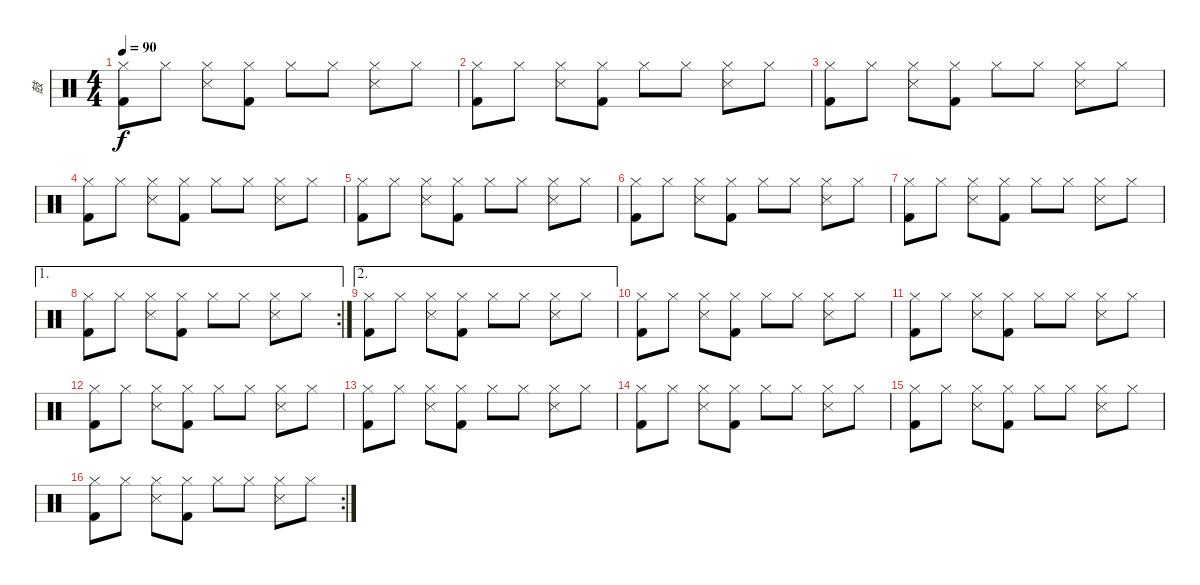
\track ("鼓" "鼓") {instrument percussion}
\staff {score}
\articulation defaults
\ts (4 4)
\tempo 90
\clef neutral
\ks c
("Hi-Hat (closed)" "Kick (hit) 2").8{dy f} "Hi-Hat (closed)".8 ("Hi-Hat (closed)" "Snare (side stick) 3").8 ("Hi-Hat (closed)" "Kick (hit) 2").8 "Hi-Hat (closed)".8 "Hi-Hat (closed)".8 ("Hi-Hat (closed)" "Snare (side stick) 3").8 "Hi-Hat (closed)".8 |
("Hi-Hat (closed)" "Kick (hit) 2").8 "Hi-Hat (closed)".8 ("Hi-Hat (closed)" "Snare (side stick) 3").8 ("Hi-Hat (closed)" "Kick (hit) 2").8 "Hi-Hat (closed)".8 "Hi-Hat (closed)".8 ("Hi-Hat (closed)" "Snare (side stick) 3").8 "Hi-Hat (closed)".8 |
("Hi-Hat (closed)" "Kick (hit) 2").8 "Hi-Hat (closed)".8 ("Hi-Hat (closed)" "Snare (side stick) 3").8 ("Hi-Hat (closed)" "Kick (hit) 2").8 "Hi-Hat (closed)".8 "Hi-Hat (closed)".8 ("Hi-Hat (closed)" "Snare (side stick) 3").8 "Hi-Hat (closed)".8 |
("Hi-Hat (closed)" "Kick (hit) 2").8 "Hi-Hat (closed)".8 ("Hi-Hat (closed)" "Snare (side stick) 3").8 ("Hi-Hat (closed)" "Kick (hit) 2").8 "Hi-Hat (closed)".8 "Hi-Hat (closed)".8 ("Hi-Hat (closed)" "Snare (side stick) 3").8 "Hi-Hat (closed)".8 |
("Hi-Hat (closed)" "Kick (hit) 2").8 "Hi-Hat (closed)".8 ("Hi-Hat (closed)" "Snare (side stick) 3").8 ("Hi-Hat (closed)" "Kick (hit) 2").8 "Hi-Hat (closed)".8 "Hi-Hat (closed)".8 ("Hi-Hat (closed)" "Snare (side stick) 3").8 "Hi-Hat (closed)".8 |
("Hi-Hat (closed)" "Kick (hit) 2").8 "Hi-Hat (closed)".8 ("Hi-Hat (closed)" "Snare (side stick) 3").8 ("Hi-Hat (closed)" "Kick (hit) 2").8 "Hi-Hat (closed)".8 "Hi-Hat (closed)".8 ("Hi-Hat (closed)" "Snare (side stick) 3").8 "Hi-Hat (closed)".8 |
("Hi-Hat (closed)" "Kick (hit) 2").8 "Hi-Hat (closed)".8 ("Hi-Hat (closed)" "Snare (side stick) 3").8 ("Hi-Hat (closed)" "Kick (hit) 2").8 "Hi-Hat (closed)".8 "Hi-Hat (closed)".8 ("Hi-Hat (closed)" "Snare (side stick) 3").8 "Hi-Hat (closed)".8 |
\ae 1
\rc 2
("Hi-Hat (closed)" "Kick (hit) 2").8 "Hi-Hat (closed)".8 ("Hi-Hat (closed)" "Snare (side stick) 3").8 ("Hi-Hat (closed)" "Kick (hit) 2").8 "Hi-Hat (closed)".8 "Hi-Hat (closed)".8 ("Hi-Hat (closed)" "Snare (side stick) 3").8 "Hi-Hat (closed)".8 |
\ae 2
("Hi-Hat (closed)" "Kick (hit) 2").8 "Hi-Hat (closed)".8 ("Hi-Hat (closed)" "Snare (side stick) 3").8 ("Hi-Hat (closed)" "Kick (hit) 2").8 "Hi-Hat (closed)".8 "Hi-Hat (closed)".8 ("Hi-Hat (closed)" "Snare (side stick) 3").8 "Hi-Hat (closed)".8 |
("Hi-Hat (closed)" "Kick (hit) 2").8 "Hi-Hat (closed)".8 ("Hi-Hat (closed)" "Snare (side stick) 3").8 ("Hi-Hat (closed)" "Kick (hit) 2").8 "Hi-Hat (closed)".8 "Hi-Hat (closed)".8 ("Hi-Hat (closed)" "Snare (side stick) 3").8 "Hi-Hat (closed)".8 |
("Hi-Hat (closed)" "Kick (hit) 2").8 "Hi-Hat (closed)".8 ("Hi-Hat (closed)" "Snare (side stick) 3").8 ("Hi-Hat (closed)" "Kick (hit) 2").8 "Hi-Hat (closed)".8 "Hi-Hat (closed)".8 ("Hi-Hat (closed)" "Snare (side stick) 3").8 "Hi-Hat (closed)".8 |
("Hi-Hat (closed)" "Kick (hit) 2").8 "Hi-Hat (closed)".8 ("Hi-Hat (closed)" "Snare (side stick) 3").8 ("Hi-Hat (closed)" "Kick (hit) 2").8 "Hi-Hat (closed)".8 "Hi-Hat (closed)".8 ("Hi-Hat (closed)" "Snare (side stick) 3").8 "Hi-Hat (closed)".8 |
("Hi-Hat (closed)" "Kick (hit) 2").8 "Hi-Hat (closed)".8 ("Hi-Hat (closed)" "Snare (side stick) 3").8 ("Hi-Hat (closed)" "Kick (hit) 2").8 "Hi-Hat (closed)".8 "Hi-Hat (closed)".8 ("Hi-Hat (closed)" "Snare (side stick) 3").8 "Hi-Hat (closed)".8 |
("Hi-Hat (closed)" "Kick (hit) 2").8 "Hi-Hat (closed)".8 ("Hi-Hat (closed)" "Snare (side stick) 3").8 ("Hi-Hat (closed)" "Kick (hit) 2").8 "Hi-Hat (closed)".8 "Hi-Hat (closed)".8 ("Hi-Hat (closed)" "Snare (side stick) 3").8 "Hi-Hat (closed)".8 |
("Hi-Hat (closed)" "Kick (hit) 2").8 "Hi-Hat (closed)".8 ("Hi-Hat (closed)" "Snare (side stick) 3").8 ("Hi-Hat (closed)" "Kick (hit) 2").8 "Hi-Hat (closed)".8 "Hi-Hat (closed)".8 ("Hi-Hat (closed)" "Snare (side stick) 3").8 "Hi-Hat (closed)".8 |
\rc 2
("Hi-Hat (closed)" "Kick (hit) 2").8 "Hi-Hat (closed)".8 ("Hi-Hat (closed)" "Snare (side stick) 3").8 ("Hi-Hat (closed)" "Kick (hit) 2").8 "Hi-Hat (closed)".8 "Hi-Hat (closed)".8 ("Hi-Hat (closed)" "Snare (side stick) 3").8 "Hi-Hat (closed)".8
